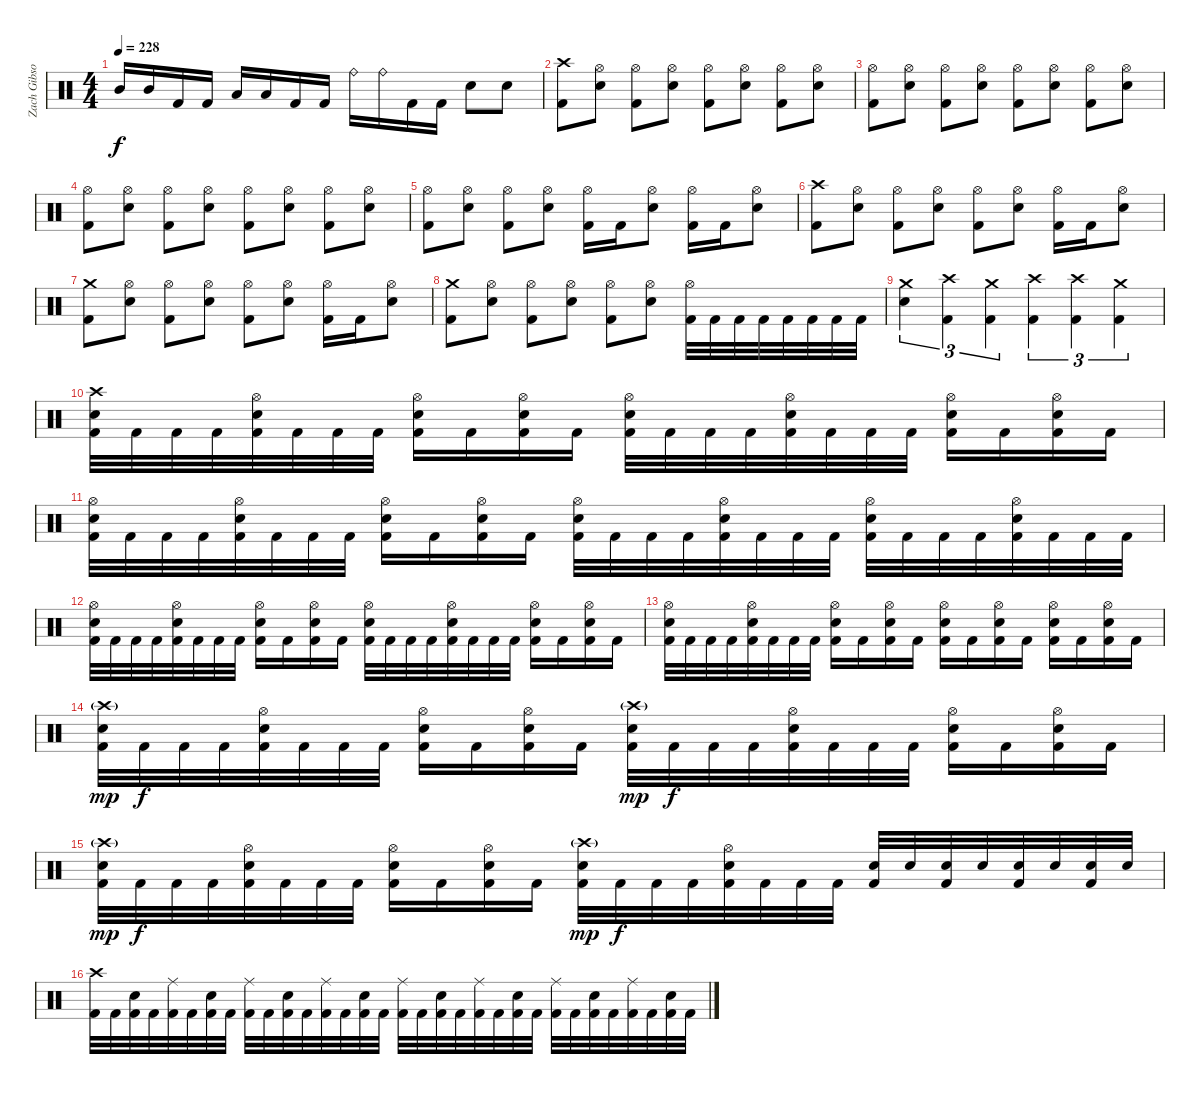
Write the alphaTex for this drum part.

\track ("Zach Gibson (Ex-Drums)" "Zach Gibso") {instrument percussion}
\staff {score}
\articulation defaults
\ts (4 4)
\tempo 228
\clef neutral
\ks c "Mid Tom (hit)".16{dy f} "Mid Tom (hit)".16 "Kick (hit) 2".16 "Kick (hit) 2".16 "Low Tom (hit)".16 "Low Tom (hit)".16 "Kick (hit) 2".16 "Kick (hit) 2".16 "Ride (bell)".16 "Ride (bell)".16 "Kick (hit) 2".16 "Kick (hit) 2".16 "Snare (hit) 2".8 "Snare (hit) 2".8
|
("Crash high (hit)" "Kick (hit) 2").8 ("Hi-Hat (open)" "Snare (hit) 2").8 ("Hi-Hat (open)" "Kick (hit) 2").8 ("Hi-Hat (open)" "Snare (hit) 2").8 ("Hi-Hat (open)" "Kick (hit) 2").8 ("Hi-Hat (open)" "Snare (hit) 2").8 ("Hi-Hat (open)" "Kick (hit) 2").8 ("Hi-Hat (open)" "Snare (hit) 2").8 |
("Hi-Hat (open)" "Kick (hit) 2").8 ("Hi-Hat (open)" "Snare (hit) 2").8 ("Hi-Hat (open)" "Kick (hit) 2").8 ("Hi-Hat (open)" "Snare (hit) 2").8 ("Hi-Hat (open)" "Kick (hit) 2").8 ("Hi-Hat (open)" "Snare (hit) 2").8 ("Hi-Hat (open)" "Kick (hit) 2").8 ("Hi-Hat (open)" "Snare (hit) 2").8 |
("Hi-Hat (open)" "Kick (hit) 2").8 ("Hi-Hat (open)" "Snare (hit) 2").8 ("Hi-Hat (open)" "Kick (hit) 2").8 ("Hi-Hat (open)" "Snare (hit) 2").8 ("Hi-Hat (open)" "Kick (hit) 2").8 ("Hi-Hat (open)" "Snare (hit) 2").8 ("Hi-Hat (open)" "Kick (hit) 2").8 ("Hi-Hat (open)" "Snare (hit) 2").8 |
("Hi-Hat (open)" "Kick (hit) 2").8 ("Hi-Hat (open)" "Snare (hit) 2").8 ("Hi-Hat (open)" "Kick (hit) 2").8 ("Hi-Hat (open)" "Snare (hit) 2").8 ("Hi-Hat (open)" "Kick (hit) 2").16 "Kick (hit) 2".16 ("Hi-Hat (open)" "Snare (hit) 2").8 ("Hi-Hat (open)" "Kick (hit) 2").16 "Kick (hit) 2".16 ("Hi-Hat (open)" "Snare (hit) 2").8 |
("Crash high (hit)" "Kick (hit) 2").8 ("Hi-Hat (open)" "Snare (hit) 2").8 ("Hi-Hat (open)" "Kick (hit) 2").8 ("Hi-Hat (open)" "Snare (hit) 2").8 ("Hi-Hat (open)" "Kick (hit) 2").8 ("Hi-Hat (open)" "Snare (hit) 2").8 ("Hi-Hat (open)" "Kick (hit) 2").16 "Kick (hit) 2".16 ("Hi-Hat (open)" "Snare (hit) 2").8 |
("Crash medium (hit)" "Kick (hit) 2").8 ("Hi-Hat (open)" "Snare (hit) 2").8 ("Hi-Hat (open)" "Kick (hit) 2").8 ("Hi-Hat (open)" "Snare (hit) 2").8 ("Hi-Hat (open)" "Kick (hit) 2").8 ("Hi-Hat (open)" "Snare (hit) 2").8 ("Hi-Hat (open)" "Kick (hit) 2").16 "Kick (hit) 2".16 ("Hi-Hat (open)" "Snare (hit) 2").8 |
("Crash medium (hit)" "Kick (hit) 2").8 ("Hi-Hat (open)" "Snare (hit) 2").8 ("Hi-Hat (open)" "Kick (hit) 2").8 ("Hi-Hat (open)" "Snare (hit) 2").8 ("Hi-Hat (open)" "Kick (hit) 2").8 ("Hi-Hat (open)" "Snare (hit) 2").8 ("Hi-Hat (open)" "Kick (hit) 2").32 "Kick (hit) 2".32 "Kick (hit) 2".32 "Kick (hit) 2".32 "Kick (hit) 2".32 "Kick (hit) 2".32 "Kick (hit) 2".32 "Kick (hit) 2".32 |
("Crash medium (hit)" "Snare (hit) 2").4{tu (3 2)} ("Crash high (hit)" "Kick (hit) 2").4{tu (3 2)} ("Crash medium (hit)" "Kick (hit) 2").4{tu (3 2)} ("Crash high (hit)" "Kick (hit) 2").4{tu (3 2)} ("Crash high (hit)" "Kick (hit) 2").4{tu (3 2)} ("Crash medium (hit)" "Kick (hit) 2").4{tu (3 2)} |
("Crash high (hit)" "Snare (hit) 2" "Kick (hit) 2").32 "Kick (hit) 2".32 "Kick (hit) 2".32 "Kick (hit) 2".32 ("Hi-Hat (open)" "Snare (hit) 2" "Kick (hit) 2").32 "Kick (hit) 2".32 "Kick (hit) 2".32 "Kick (hit) 2".32 ("Hi-Hat (open)" "Kick (hit) 2" "Snare (hit) 2").16 "Kick (hit) 2".16 ("Hi-Hat (open)" "Snare (hit) 2" "Kick (hit) 2").16 "Kick (hit) 2".16 ("Hi-Hat (open)" "Snare (hit) 2" "Kick (hit) 2").32 "Kick (hit) 2".32 "Kick (hit) 2".32 "Kick (hit) 2".32 ("Hi-Hat (open)" "Snare (hit) 2" "Kick (hit) 2").32 "Kick (hit) 2".32 "Kick (hit) 2".32 "Kick (hit) 2".32 ("Hi-Hat (open)" "Snare (hit) 2" "Kick (hit) 2").16 "Kick (hit) 2".16 ("Hi-Hat (open)" "Snare (hit) 2" "Kick (hit) 2").16 "Kick (hit) 2".16 |
("Hi-Hat (open)" "Snare (hit) 2" "Kick (hit) 2").32 "Kick (hit) 2".32 "Kick (hit) 2".32 "Kick (hit) 2".32 ("Hi-Hat (open)" "Snare (hit) 2" "Kick (hit) 2").32 "Kick (hit) 2".32 "Kick (hit) 2".32 "Kick (hit) 2".32 ("Hi-Hat (open)" "Kick (hit) 2" "Snare (hit) 2").16 "Kick (hit) 2".16 ("Hi-Hat (open)" "Snare (hit) 2" "Kick (hit) 2").16 "Kick (hit) 2".16 ("Hi-Hat (open)" "Snare (hit) 2" "Kick (hit) 2").32 "Kick (hit) 2".32 "Kick (hit) 2".32 "Kick (hit) 2".32 ("Hi-Hat (open)" "Snare (hit) 2" "Kick (hit) 2").32 "Kick (hit) 2".32 "Kick (hit) 2".32 "Kick (hit) 2".32 ("Hi-Hat (open)" "Snare (hit) 2" "Kick (hit) 2").32 "Kick (hit) 2".32 "Kick (hit) 2".32 "Kick (hit) 2".32 ("Hi-Hat (open)" "Snare (hit) 2" "Kick (hit) 2").32 "Kick (hit) 2".32 "Kick (hit) 2".32 "Kick (hit) 2".32 |
("Hi-Hat (open)" "Snare (hit) 2" "Kick (hit) 2").32 "Kick (hit) 2".32 "Kick (hit) 2".32 "Kick (hit) 2".32 ("Hi-Hat (open)" "Snare (hit) 2" "Kick (hit) 2").32 "Kick (hit) 2".32 "Kick (hit) 2".32 "Kick (hit) 2".32 ("Hi-Hat (open)" "Kick (hit) 2" "Snare (hit) 2").16 "Kick (hit) 2".16 ("Hi-Hat (open)" "Snare (hit) 2" "Kick (hit) 2").16 "Kick (hit) 2".16 ("Hi-Hat (open)" "Snare (hit) 2" "Kick (hit) 2").32 "Kick (hit) 2".32 "Kick (hit) 2".32 "Kick (hit) 2".32 ("Hi-Hat (open)" "Snare (hit) 2" "Kick (hit) 2").32 "Kick (hit) 2".32 "Kick (hit) 2".32 "Kick (hit) 2".32 ("Hi-Hat (open)" "Snare (hit) 2" "Kick (hit) 2").16 "Kick (hit) 2".16 ("Hi-Hat (open)" "Snare (hit) 2" "Kick (hit) 2").16 "Kick (hit) 2".16 |
("Hi-Hat (open)" "Snare (hit) 2" "Kick (hit) 2").32 "Kick (hit) 2".32 "Kick (hit) 2".32 "Kick (hit) 2".32 ("Hi-Hat (open)" "Snare (hit) 2" "Kick (hit) 2").32 "Kick (hit) 2".32 "Kick (hit) 2".32 "Kick (hit) 2".32 ("Hi-Hat (open)" "Kick (hit) 2" "Snare (hit) 2").16 "Kick (hit) 2".16 ("Hi-Hat (open)" "Snare (hit) 2" "Kick (hit) 2").16 "Kick (hit) 2".16 ("Hi-Hat (open)" "Snare (hit) 2" "Kick (hit) 2").16 "Kick (hit) 2".16 ("Hi-Hat (open)" "Snare (hit) 2" "Kick (hit) 2").16 "Kick (hit) 2".16 ("Hi-Hat (open)" "Snare (hit) 2" "Kick (hit) 2").16 "Kick (hit) 2".16 ("Hi-Hat (open)" "Snare (hit) 2" "Kick (hit) 2").16 "Kick (hit) 2".16 |
("Crash high (hit)"{g} "Snare (hit) 2" "Kick (hit) 2").32{dy mp} "Kick (hit) 2".32{dy f} "Kick (hit) 2".32 "Kick (hit) 2".32 ("Hi-Hat (open)" "Snare (hit) 2" "Kick (hit) 2").32 "Kick (hit) 2".32 "Kick (hit) 2".32 "Kick (hit) 2".32 ("Hi-Hat (open)" "Kick (hit) 2" "Snare (hit) 2").16 "Kick (hit) 2".16 ("Hi-Hat (open)" "Snare (hit) 2" "Kick (hit) 2").16 "Kick (hit) 2".16 ("Crash high (hit)"{g} "Snare (hit) 2" "Kick (hit) 2").32{dy mp} "Kick (hit) 2".32{dy f} "Kick (hit) 2".32 "Kick (hit) 2".32 ("Hi-Hat (open)" "Snare (hit) 2" "Kick (hit) 2").32 "Kick (hit) 2".32 "Kick (hit) 2".32 "Kick (hit) 2".32 ("Hi-Hat (open)" "Snare (hit) 2" "Kick (hit) 2").16 "Kick (hit) 2".16 ("Hi-Hat (open)" "Snare (hit) 2" "Kick (hit) 2").16 "Kick (hit) 2".16 |
("Crash high (hit)"{g} "Snare (hit) 2" "Kick (hit) 2").32{dy mp} "Kick (hit) 2".32{dy f} "Kick (hit) 2".32 "Kick (hit) 2".32 ("Hi-Hat (open)" "Snare (hit) 2" "Kick (hit) 2").32 "Kick (hit) 2".32 "Kick (hit) 2".32 "Kick (hit) 2".32 ("Hi-Hat (open)" "Kick (hit) 2" "Snare (hit) 2").16 "Kick (hit) 2".16 ("Hi-Hat (open)" "Snare (hit) 2" "Kick (hit) 2").16 "Kick (hit) 2".16 ("Crash high (hit)"{g} "Snare (hit) 2" "Kick (hit) 2").32{dy mp} "Kick (hit) 2".32{dy f} "Kick (hit) 2".32 "Kick (hit) 2".32 ("Hi-Hat (open)" "Snare (hit) 2" "Kick (hit) 2").32 "Kick (hit) 2".32 "Kick (hit) 2".32 "Kick (hit) 2".32 ("Snare (hit) 2" "Kick (hit) 2").32 "Snare (hit) 2".32 ("Snare (hit) 2" "Kick (hit) 2").32 "Snare (hit) 2".32 ("Snare (hit) 2" "Kick (hit) 2").32 "Snare (hit) 2".32 ("Snare (hit) 2" "Kick (hit) 2").32 "Snare (hit) 2".32 |
("Crash high (hit)" "Kick (hit) 2").32 "Kick (hit) 2".32 ("Snare (hit) 2" "Kick (hit) 2").32 "Kick (hit) 2".32 ("Ride (middle)" "Kick (hit) 2").32 "Kick (hit) 2".32 ("Snare (hit) 2" "Kick (hit) 2").32 "Kick (hit) 2".32 ("Ride (middle)" "Kick (hit) 2").32 "Kick (hit) 2".32 ("Snare (hit) 2" "Kick (hit) 2").32 "Kick (hit) 2".32 ("Ride (middle)" "Kick (hit) 2").32 "Kick (hit) 2".32 ("Snare (hit) 2" "Kick (hit) 2").32 "Kick (hit) 2".32 ("Ride (middle)" "Kick (hit) 2").32 "Kick (hit) 2".32 ("Snare (hit) 2" "Kick (hit) 2").32 "Kick (hit) 2".32 ("Ride (middle)" "Kick (hit) 2").32 "Kick (hit) 2".32 ("Snare (hit) 2" "Kick (hit) 2").32 "Kick (hit) 2".32 ("Ride (middle)" "Kick (hit) 2").32 "Kick (hit) 2".32 ("Snare (hit) 2" "Kick (hit) 2").32 "Kick (hit) 2".32 ("Ride (middle)" "Kick (hit) 2").32 "Kick (hit) 2".32 ("Snare (hit) 2" "Kick (hit) 2").32 "Kick (hit) 2".32
